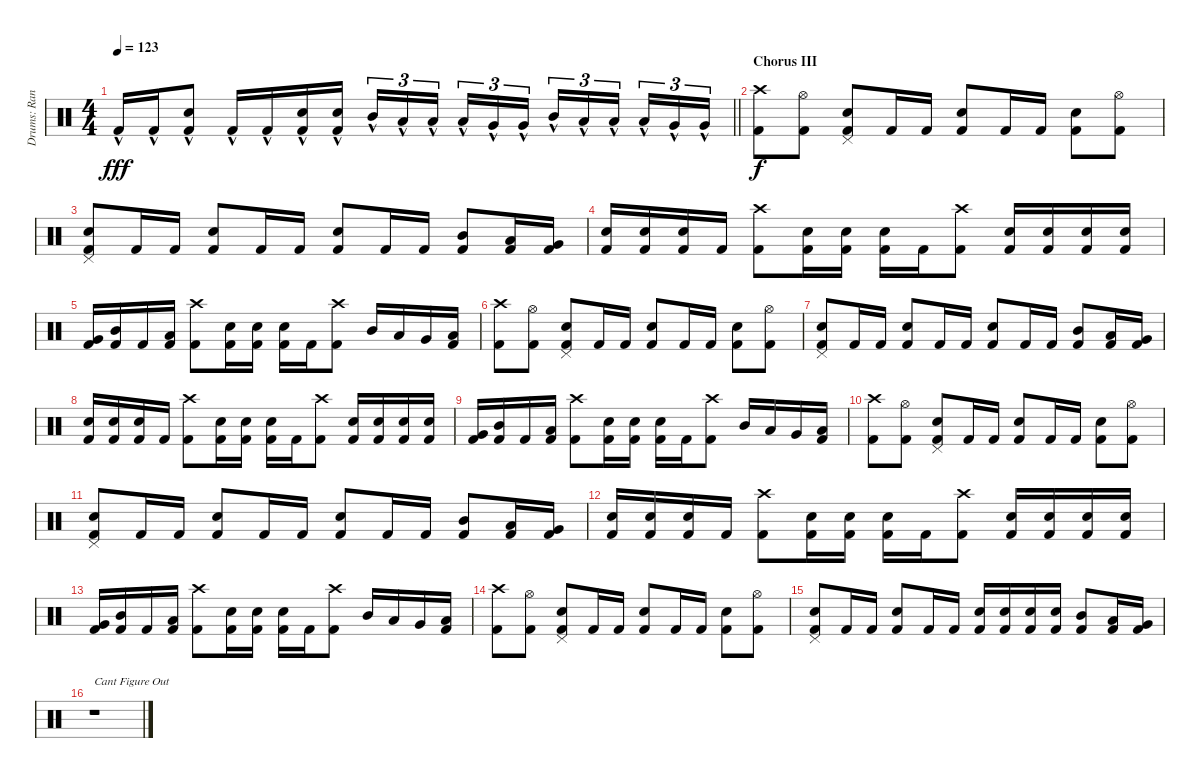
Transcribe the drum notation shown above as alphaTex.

\track ("Drums: Randy" "Drums: Ran") {instrument percussion}
\staff {score}
\articulation defaults
\ts (4 4)
\tempo 123
\clef neutral
\barLineRight lightlight
\ks c "Kick (hit) 2"{hac}.16{dy fff} "Kick (hit) 2"{hac}.16
("Snare (hit) 2"{hac} "Kick (hit) 2"{hac}).8 "Kick (hit) 2"{hac}.16 "Kick (hit) 2"{hac}.16 ("Snare (hit) 2"{hac} "Kick (hit) 2"{hac}).16 ("Snare (hit) 2"{hac} "Kick (hit) 2"{hac}).16 "Mid Tom (hit)"{hac}.16{tu (3 2)} "Low Tom (hit)"{hac}.16{tu (3 2)} "Low Tom (hit)"{hac}.16{tu (3 2) beam splitsecondary} "Low Tom (hit)"{hac}.16{tu (3 2)} "Very Low Tom (hit)"{hac}.16{tu (3 2)} "Very Low Tom (hit)"{hac}.16{tu (3 2)} "Mid Tom (hit)"{hac}.16{tu (3 2)} "Low Tom (hit)"{hac}.16{tu (3 2)} "Low Tom (hit)"{hac}.16{tu (3 2) beam splitsecondary} "Low Tom (hit)"{hac}.16{tu (3 2)} "Very Low Tom (hit)"{hac}.16{tu (3 2)} "Very Low Tom (hit)"{hac}.16{tu (3 2)} |
\section ("" "Chorus III")
("Crash high (hit)" "Kick (hit) 2").8{dy f} ("Hi-Hat (open)" "Kick (hit) 2").8 ("Pedal Hi-Hat (hit)" "Snare (hit) 2" "Kick (hit) 2").8 "Kick (hit) 2".16 "Kick (hit) 2".16 ("Snare (hit) 2" "Kick (hit) 2").8 "Kick (hit) 2".16 "Kick (hit) 2".16 ("Snare (hit) 2" "Kick (hit) 2").8 ("Hi-Hat (open)" "Kick (hit) 2").8 |
("Pedal Hi-Hat (hit)" "Snare (hit) 2" "Kick (hit) 2").8 "Kick (hit) 2".16 "Kick (hit) 2".16 ("Snare (hit) 2" "Kick (hit) 2").8 "Kick (hit) 2".16 "Kick (hit) 2".16 ("Snare (hit) 2" "Kick (hit) 2").8 "Kick (hit) 2".16 "Kick (hit) 2".16 ("Mid Tom (hit)" "Kick (hit) 2").8 ("Low Tom (hit)" "Kick (hit) 2").16 ("Very Low Tom (hit)" "Kick (hit) 2").16 |
("Snare (hit) 2" "Kick (hit) 2").16 ("Snare (hit) 2" "Kick (hit) 2").16 ("Snare (hit) 2" "Kick (hit) 2").16 "Kick (hit) 2".16 ("Crash high (hit)" "Kick (hit) 2").8 ("Snare (hit) 2" "Kick (hit) 2").16 ("Snare (hit) 2" "Kick (hit) 2").16 ("Snare (hit) 2" "Kick (hit) 2").16 "Kick (hit) 2".16 ("Crash high (hit)" "Kick (hit) 2").8 ("Snare (hit) 2" "Kick (hit) 2").16 ("Snare (hit) 2" "Kick (hit) 2").16 ("Snare (hit) 2" "Kick (hit) 2").16 ("Snare (hit) 2" "Kick (hit) 2").16 |
("Very Low Tom (hit)" "Kick (hit) 2").16 ("Mid Tom (hit)" "Kick (hit) 2").16 "Kick (hit) 2".16 ("Low Tom (hit)" "Kick (hit) 2").16 ("Crash high (hit)" "Kick (hit) 2").8 ("Snare (hit) 2" "Kick (hit) 2").16 ("Snare (hit) 2" "Kick (hit) 2").16 ("Snare (hit) 2" "Kick (hit) 2").16 "Kick (hit) 2".16 ("Crash high (hit)" "Kick (hit) 2").8 "Mid Tom (hit)".16 "Low Tom (hit)".16 "Very Low Tom (hit)".16 ("Low Floor Tom (hit)" "Kick (hit) 2").16 |
("Crash high (hit)" "Kick (hit) 2").8 ("Hi-Hat (open)" "Kick (hit) 2").8 ("Pedal Hi-Hat (hit)" "Snare (hit) 2" "Kick (hit) 2").8 "Kick (hit) 2".16 "Kick (hit) 2".16 ("Snare (hit) 2" "Kick (hit) 2").8 "Kick (hit) 2".16 "Kick (hit) 2".16 ("Snare (hit) 2" "Kick (hit) 2").8 ("Hi-Hat (open)" "Kick (hit) 2").8 |
("Pedal Hi-Hat (hit)" "Snare (hit) 2" "Kick (hit) 2").8 "Kick (hit) 2".16 "Kick (hit) 2".16 ("Snare (hit) 2" "Kick (hit) 2").8 "Kick (hit) 2".16 "Kick (hit) 2".16 ("Snare (hit) 2" "Kick (hit) 2").8 "Kick (hit) 2".16 "Kick (hit) 2".16 ("Mid Tom (hit)" "Kick (hit) 2").8 ("Low Tom (hit)" "Kick (hit) 2").16 ("Very Low Tom (hit)" "Kick (hit) 2").16 |
("Snare (hit) 2" "Kick (hit) 2").16 ("Snare (hit) 2" "Kick (hit) 2").16 ("Snare (hit) 2" "Kick (hit) 2").16 "Kick (hit) 2".16 ("Crash high (hit)" "Kick (hit) 2").8 ("Snare (hit) 2" "Kick (hit) 2").16 ("Snare (hit) 2" "Kick (hit) 2").16 ("Snare (hit) 2" "Kick (hit) 2").16 "Kick (hit) 2".16 ("Crash high (hit)" "Kick (hit) 2").8 ("Snare (hit) 2" "Kick (hit) 2").16 ("Snare (hit) 2" "Kick (hit) 2").16 ("Snare (hit) 2" "Kick (hit) 2").16 ("Snare (hit) 2" "Kick (hit) 2").16 |
("Very Low Tom (hit)" "Kick (hit) 2").16 ("Mid Tom (hit)" "Kick (hit) 2").16 "Kick (hit) 2".16 ("Low Tom (hit)" "Kick (hit) 2").16 ("Crash high (hit)" "Kick (hit) 2").8 ("Snare (hit) 2" "Kick (hit) 2").16 ("Snare (hit) 2" "Kick (hit) 2").16 ("Snare (hit) 2" "Kick (hit) 2").16 "Kick (hit) 2".16 ("Crash high (hit)" "Kick (hit) 2").8 "Mid Tom (hit)".16 "Low Tom (hit)".16 "Very Low Tom (hit)".16 ("Low Floor Tom (hit)" "Kick (hit) 2").16 |
("Crash high (hit)" "Kick (hit) 2").8 ("Hi-Hat (open)" "Kick (hit) 2").8 ("Pedal Hi-Hat (hit)" "Snare (hit) 2" "Kick (hit) 2").8 "Kick (hit) 2".16 "Kick (hit) 2".16 ("Snare (hit) 2" "Kick (hit) 2").8 "Kick (hit) 2".16 "Kick (hit) 2".16 ("Snare (hit) 2" "Kick (hit) 2").8 ("Hi-Hat (open)" "Kick (hit) 2").8 |
("Pedal Hi-Hat (hit)" "Snare (hit) 2" "Kick (hit) 2").8 "Kick (hit) 2".16 "Kick (hit) 2".16 ("Snare (hit) 2" "Kick (hit) 2").8 "Kick (hit) 2".16 "Kick (hit) 2".16 ("Snare (hit) 2" "Kick (hit) 2").8 "Kick (hit) 2".16 "Kick (hit) 2".16 ("Mid Tom (hit)" "Kick (hit) 2").8 ("Low Tom (hit)" "Kick (hit) 2").16 ("Very Low Tom (hit)" "Kick (hit) 2").16 |
("Snare (hit) 2" "Kick (hit) 2").16 ("Snare (hit) 2" "Kick (hit) 2").16 ("Snare (hit) 2" "Kick (hit) 2").16 "Kick (hit) 2".16 ("Crash high (hit)" "Kick (hit) 2").8 ("Snare (hit) 2" "Kick (hit) 2").16 ("Snare (hit) 2" "Kick (hit) 2").16 ("Snare (hit) 2" "Kick (hit) 2").16 "Kick (hit) 2".16 ("Crash high (hit)" "Kick (hit) 2").8 ("Snare (hit) 2" "Kick (hit) 2").16 ("Snare (hit) 2" "Kick (hit) 2").16 ("Snare (hit) 2" "Kick (hit) 2").16 ("Snare (hit) 2" "Kick (hit) 2").16 |
("Very Low Tom (hit)" "Kick (hit) 2").16 ("Mid Tom (hit)" "Kick (hit) 2").16 "Kick (hit) 2".16 ("Low Tom (hit)" "Kick (hit) 2").16 ("Crash high (hit)" "Kick (hit) 2").8 ("Snare (hit) 2" "Kick (hit) 2").16 ("Snare (hit) 2" "Kick (hit) 2").16 ("Snare (hit) 2" "Kick (hit) 2").16 "Kick (hit) 2".16 ("Crash high (hit)" "Kick (hit) 2").8 "Mid Tom (hit)".16 "Low Tom (hit)".16 "Very Low Tom (hit)".16 ("Low Floor Tom (hit)" "Kick (hit) 2").16 |
("Crash high (hit)" "Kick (hit) 2").8 ("Hi-Hat (open)" "Kick (hit) 2").8 ("Pedal Hi-Hat (hit)" "Snare (hit) 2" "Kick (hit) 2").8 "Kick (hit) 2".16 "Kick (hit) 2".16 ("Snare (hit) 2" "Kick (hit) 2").8 "Kick (hit) 2".16 "Kick (hit) 2".16 ("Snare (hit) 2" "Kick (hit) 2").8 ("Hi-Hat (open)" "Kick (hit) 2").8 |
("Pedal Hi-Hat (hit)" "Snare (hit) 2" "Kick (hit) 2").8 "Kick (hit) 2".16 "Kick (hit) 2".16 ("Snare (hit) 2" "Kick (hit) 2").8 "Kick (hit) 2".16 "Kick (hit) 2".16 ("Snare (hit) 2" "Kick (hit) 2").16 ("Snare (hit) 2" "Kick (hit) 2").16 ("Snare (hit) 2" "Kick (hit) 2").16 ("Snare (hit) 2" "Kick (hit) 2").16 ("Mid Tom (hit)" "Kick (hit) 2").8 ("Low Tom (hit)" "Kick (hit) 2").16 ("Very Low Tom (hit)" "Kick (hit) 2").16 |
r.1{txt "Cant Figure Out"}
